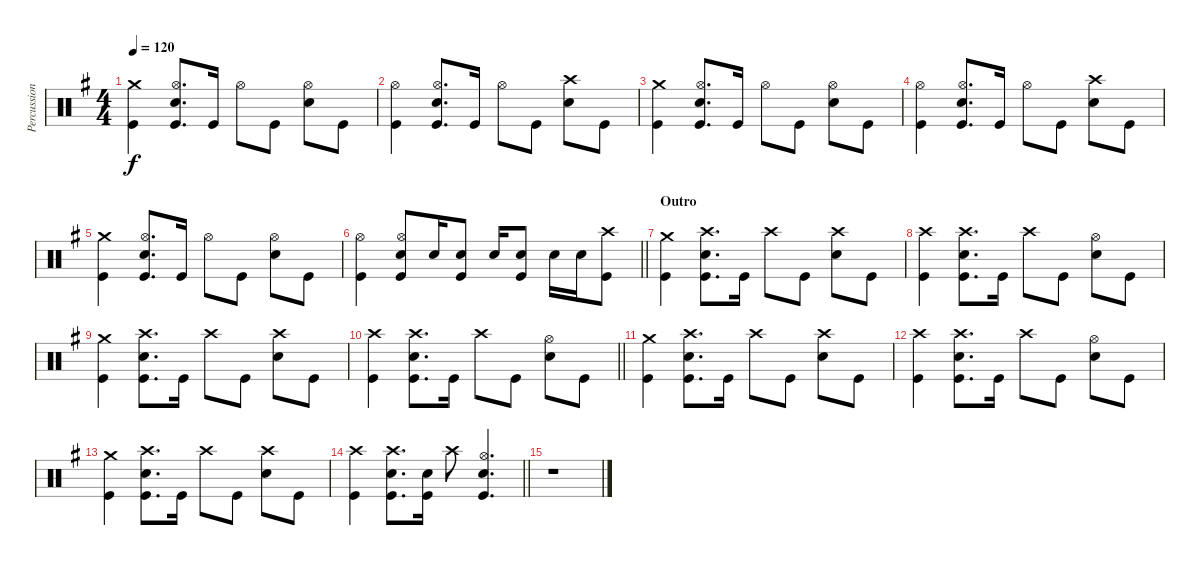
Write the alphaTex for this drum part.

\track ("Percussion" "Percussion") {instrument percussion}
\staff {score}
\articulation defaults
\ts (4 4)
\tempo 120
\clef neutral
\ks g
("Crash medium (hit)" "Kick (hit)").4{dy f} ("Hi-Hat (open)" "Electric Snare (hit)" "Kick (hit)").8{d} "Kick (hit)".16 "Hi-Hat (open)".8 "Kick (hit)".8 ("Hi-Hat (open)" "Electric Snare (hit)").8 "Kick (hit)".8 |
("Hi-Hat (open)" "Kick (hit)").4 ("Hi-Hat (open)" "Electric Snare (hit)" "Kick (hit)").8{d} "Kick (hit)".16 "Hi-Hat (open)".8 "Kick (hit)".8 ("Crash high (hit)" "Electric Snare (hit)").8 "Kick (hit)".8 |
("Crash medium (hit)" "Kick (hit)").4 ("Hi-Hat (open)" "Electric Snare (hit)" "Kick (hit)").8{d} "Kick (hit)".16 "Hi-Hat (open)".8 "Kick (hit)".8 ("Hi-Hat (open)" "Electric Snare (hit)").8 "Kick (hit)".8 |
("Hi-Hat (open)" "Kick (hit)").4 ("Hi-Hat (open)" "Electric Snare (hit)" "Kick (hit)").8{d} "Kick (hit)".16 "Hi-Hat (open)".8 "Kick (hit)".8 ("Crash high (hit)" "Electric Snare (hit)").8 "Kick (hit)".8 |
("Crash medium (hit)" "Kick (hit)").4 ("Hi-Hat (open)" "Electric Snare (hit)" "Kick (hit)").8{d} "Kick (hit)".16 "Hi-Hat (open)".8 "Kick (hit)".8 ("Hi-Hat (open)" "Electric Snare (hit)").8 "Kick (hit)".8 |
\barLineRight lightlight
("Hi-Hat (open)" "Kick (hit)").4 ("Hi-Hat (open)" "Electric Snare (hit)" "Kick (hit)").8 "Electric Snare (hit)".16 ("Electric Snare (hit)" "Kick (hit)").8 "Electric Snare (hit)".16 ("Electric Snare (hit)" "Kick (hit)").8 "Electric Snare (hit)".16 "Electric Snare (hit)".16 ("Crash high (hit)" "Kick (hit)").8 |
\section ("" "Outro")
("Crash medium (hit)" "Kick (hit)").4 ("Crash high (hit)" "Electric Snare (hit)" "Kick (hit)").8{d} "Kick (hit)".16 "Crash high (hit)".8 "Kick (hit)".8 ("Crash high (hit)" "Electric Snare (hit)").8 "Kick (hit)".8 |
("Crash high (hit)" "Kick (hit)").4 ("Crash high (hit)" "Electric Snare (hit)" "Kick (hit)").8{d} "Kick (hit)".16 "Crash high (hit)".8 "Kick (hit)".8 ("Hi-Hat (open)" "Electric Snare (hit)").8 "Kick (hit)".8 |
("Crash medium (hit)" "Kick (hit)").4 ("Crash high (hit)" "Electric Snare (hit)" "Kick (hit)").8{d} "Kick (hit)".16 "Crash high (hit)".8 "Kick (hit)".8 ("Crash high (hit)" "Electric Snare (hit)").8 "Kick (hit)".8 |
\barLineRight lightlight
("Crash high (hit)" "Kick (hit)").4 ("Crash high (hit)" "Electric Snare (hit)" "Kick (hit)").8{d} "Kick (hit)".16 "Crash high (hit)".8 "Kick (hit)".8 ("Hi-Hat (open)" "Electric Snare (hit)").8 "Kick (hit)".8 |
("Crash medium (hit)" "Kick (hit)").4 ("Crash high (hit)" "Electric Snare (hit)" "Kick (hit)").8{d} "Kick (hit)".16 "Crash high (hit)".8 "Kick (hit)".8 ("Crash high (hit)" "Electric Snare (hit)").8 "Kick (hit)".8 |
("Crash high (hit)" "Kick (hit)").4 ("Crash high (hit)" "Electric Snare (hit)" "Kick (hit)").8{d} "Kick (hit)".16 "Crash high (hit)".8 "Kick (hit)".8 ("Hi-Hat (open)" "Electric Snare (hit)").8 "Kick (hit)".8 |
("Crash medium (hit)" "Kick (hit)").4 ("Crash high (hit)" "Electric Snare (hit)" "Kick (hit)").8{d} "Kick (hit)".16 "Crash high (hit)".8 "Kick (hit)".8 ("Crash high (hit)" "Electric Snare (hit)").8 "Kick (hit)".8 |
\barLineRight lightlight
("Crash high (hit)" "Kick (hit)").4 ("Crash high (hit)" "Electric Snare (hit)" "Kick (hit)").8{d} ("Electric Snare (hit)" "Kick (hit)").16 "Crash high (hit)".8 ("Hi-Hat (open)" "Electric Snare (hit)" "Kick (hit)").4{d} |
r.1
